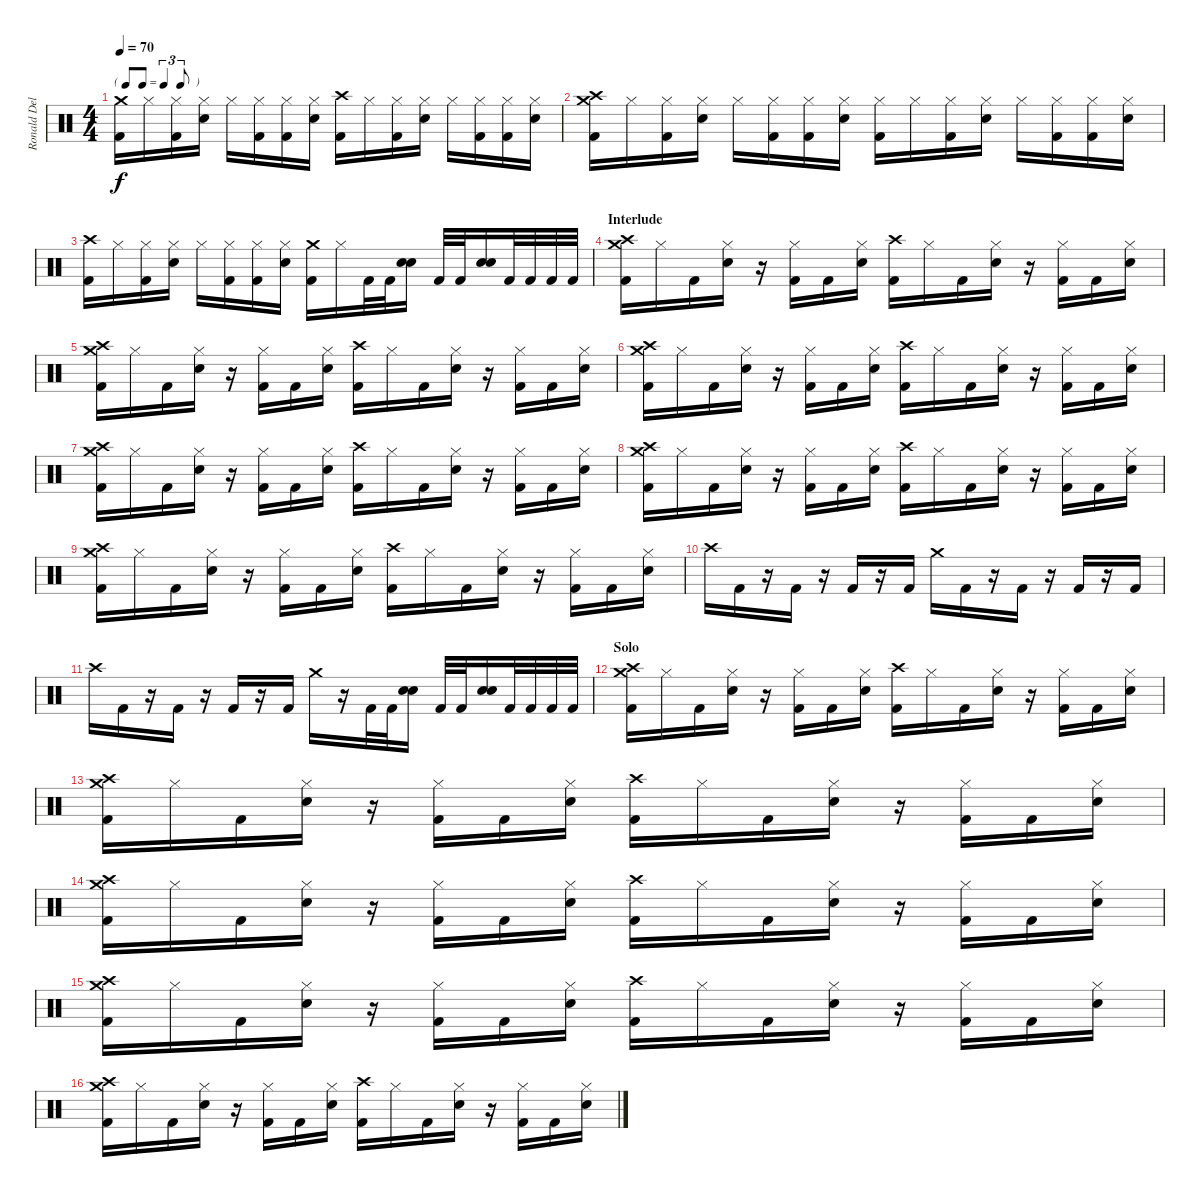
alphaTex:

\track ("Ronald Del Aguila (Bateria)" "Ronald Del") {instrument percussion}
\staff {score}
\articulation defaults
\ts (4 4)
\tf triplet8th
\tempo 70
\clef neutral
\ks c
("Crash medium (hit)" "Kick (hit) 2").16{dy f} "Hi-Hat (closed)".16 ("Hi-Hat (closed)" "Kick (hit) 2").16 ("Hi-Hat (closed)" "Snare (hit) 2").16 "Hi-Hat (closed)".16 ("Hi-Hat (closed)" "Kick (hit) 2").16 ("Hi-Hat (closed)" "Kick (hit) 2").16 ("Hi-Hat (closed)" "Snare (hit) 2").16 ("Crash high (hit)" "Kick (hit) 2").16 "Hi-Hat (closed)".16 ("Hi-Hat (closed)" "Kick (hit) 2").16 ("Hi-Hat (closed)" "Snare (hit) 2").16 "Hi-Hat (closed)".16 ("Hi-Hat (closed)" "Kick (hit) 2").16 ("Hi-Hat (closed)" "Kick (hit) 2").16 ("Hi-Hat (closed)" "Snare (hit) 2").16 |
("Crash medium (hit)" "Crash high (hit)" "Kick (hit) 2").16 "Hi-Hat (closed)".16 ("Hi-Hat (closed)" "Kick (hit) 2").16 ("Hi-Hat (closed)" "Snare (hit) 2").16 "Hi-Hat (closed)".16 ("Hi-Hat (closed)" "Kick (hit) 2").16 ("Hi-Hat (closed)" "Kick (hit) 2").16 ("Hi-Hat (closed)" "Snare (hit) 2").16 ("Hi-Hat (closed)" "Kick (hit) 2").16 "Hi-Hat (closed)".16 ("Hi-Hat (closed)" "Kick (hit) 2").16 ("Hi-Hat (closed)" "Snare (hit) 2").16 "Hi-Hat (closed)".16 ("Hi-Hat (closed)" "Kick (hit) 2").16 ("Hi-Hat (closed)" "Kick (hit) 2").16 ("Hi-Hat (closed)" "Snare (hit) 2").16 |
("Crash high (hit)" "Kick (hit) 2").16 "Hi-Hat (closed)".16 ("Hi-Hat (closed)" "Kick (hit) 2").16 ("Hi-Hat (closed)" "Snare (hit) 2").16 "Hi-Hat (closed)".16 ("Hi-Hat (closed)" "Kick (hit) 2").16 ("Hi-Hat (closed)" "Kick (hit) 2").16 ("Hi-Hat (closed)" "Snare (hit) 2").16 ("Crash medium (hit)" "Kick (hit) 2").16 "Hi-Hat (closed)".16 "Kick (hit) 2".32 "Kick (hit) 2".32 ("Snare (hit) 2" "Snare (hit) 2").16 "Kick (hit) 2".32 "Kick (hit) 2".32 ("Snare (hit) 2" "Snare (hit) 2").16 "Kick (hit) 2".32 "Kick (hit) 2".32 "Kick (hit) 2".32 "Kick (hit) 2".32 |
\section ("" "Interlude")
("Crash medium (hit)" "Crash high (hit)" "Kick (hit) 2").16 "Hi-Hat (closed)".16 "Kick (hit) 2".16 ("Hi-Hat (closed)" "Snare (hit) 2").16 r.16 ("Hi-Hat (closed)" "Kick (hit) 2").16 "Kick (hit) 2".16 ("Hi-Hat (closed)" "Snare (hit) 2").16 ("Crash high (hit)" "Kick (hit) 2").16 "Hi-Hat (closed)".16 "Kick (hit) 2".16 ("Hi-Hat (closed)" "Snare (hit) 2").16 r.16 ("Hi-Hat (closed)" "Kick (hit) 2").16 "Kick (hit) 2".16 ("Hi-Hat (closed)" "Snare (hit) 2").16 |
("Crash medium (hit)" "Crash high (hit)" "Kick (hit) 2").16 "Hi-Hat (closed)".16 "Kick (hit) 2".16 ("Hi-Hat (closed)" "Snare (hit) 2").16 r.16 ("Hi-Hat (closed)" "Kick (hit) 2").16 "Kick (hit) 2".16 ("Hi-Hat (closed)" "Snare (hit) 2").16 ("Crash high (hit)" "Kick (hit) 2").16 "Hi-Hat (closed)".16 "Kick (hit) 2".16 ("Hi-Hat (closed)" "Snare (hit) 2").16 r.16 ("Hi-Hat (closed)" "Kick (hit) 2").16 "Kick (hit) 2".16 ("Hi-Hat (closed)" "Snare (hit) 2").16 |
("Crash medium (hit)" "Crash high (hit)" "Kick (hit) 2").16 "Hi-Hat (closed)".16 "Kick (hit) 2".16 ("Hi-Hat (closed)" "Snare (hit) 2").16 r.16 ("Hi-Hat (closed)" "Kick (hit) 2").16 "Kick (hit) 2".16 ("Hi-Hat (closed)" "Snare (hit) 2").16 ("Crash high (hit)" "Kick (hit) 2").16 "Hi-Hat (closed)".16 "Kick (hit) 2".16 ("Hi-Hat (closed)" "Snare (hit) 2").16 r.16 ("Hi-Hat (closed)" "Kick (hit) 2").16 "Kick (hit) 2".16 ("Hi-Hat (closed)" "Snare (hit) 2").16 |
("Crash medium (hit)" "Crash high (hit)" "Kick (hit) 2").16 "Hi-Hat (closed)".16 "Kick (hit) 2".16 ("Hi-Hat (closed)" "Snare (hit) 2").16 r.16 ("Hi-Hat (closed)" "Kick (hit) 2").16 "Kick (hit) 2".16 ("Hi-Hat (closed)" "Snare (hit) 2").16 ("Crash high (hit)" "Kick (hit) 2").16 "Hi-Hat (closed)".16 "Kick (hit) 2".16 ("Hi-Hat (closed)" "Snare (hit) 2").16 r.16 ("Hi-Hat (closed)" "Kick (hit) 2").16 "Kick (hit) 2".16 ("Hi-Hat (closed)" "Snare (hit) 2").16 |
("Crash medium (hit)" "Crash high (hit)" "Kick (hit) 2").16 "Hi-Hat (closed)".16 "Kick (hit) 2".16 ("Hi-Hat (closed)" "Snare (hit) 2").16 r.16 ("Hi-Hat (closed)" "Kick (hit) 2").16 "Kick (hit) 2".16 ("Hi-Hat (closed)" "Snare (hit) 2").16 ("Crash high (hit)" "Kick (hit) 2").16 "Hi-Hat (closed)".16 "Kick (hit) 2".16 ("Hi-Hat (closed)" "Snare (hit) 2").16 r.16 ("Hi-Hat (closed)" "Kick (hit) 2").16 "Kick (hit) 2".16 ("Hi-Hat (closed)" "Snare (hit) 2").16 |
("Crash medium (hit)" "Crash high (hit)" "Kick (hit) 2").16 "Hi-Hat (closed)".16 "Kick (hit) 2".16 ("Hi-Hat (closed)" "Snare (hit) 2").16 r.16 ("Hi-Hat (closed)" "Kick (hit) 2").16 "Kick (hit) 2".16 ("Hi-Hat (closed)" "Snare (hit) 2").16 ("Crash high (hit)" "Kick (hit) 2").16 "Hi-Hat (closed)".16 "Kick (hit) 2".16 ("Hi-Hat (closed)" "Snare (hit) 2").16 r.16 ("Hi-Hat (closed)" "Kick (hit) 2").16 "Kick (hit) 2".16 ("Hi-Hat (closed)" "Snare (hit) 2").16 |
"Crash high (hit)".16 "Kick (hit) 2".16 r.16 "Kick (hit) 2".16 r.16 "Kick (hit) 2".16 r.16 "Kick (hit) 2".16 "Crash medium (hit)".16 "Kick (hit) 2".16 r.16 "Kick (hit) 2".16 r.16 "Kick (hit) 2".16 r.16 "Kick (hit) 2".16 |
"Crash high (hit)".16 "Kick (hit) 2".16 r.16 "Kick (hit) 2".16 r.16 "Kick (hit) 2".16 r.16 "Kick (hit) 2".16 "Crash medium (hit)".16 r.16 "Kick (hit) 2".32 "Kick (hit) 2".32 ("Snare (hit) 2" "Snare (hit) 2").16 "Kick (hit) 2".32 "Kick (hit) 2".32 ("Snare (hit) 2" "Snare (hit) 2").16 "Kick (hit) 2".32 "Kick (hit) 2".32 "Kick (hit) 2".32 "Kick (hit) 2".32 |
\section ("" "Solo")
("Crash medium (hit)" "Crash high (hit)" "Kick (hit) 2").16 "Hi-Hat (closed)".16 "Kick (hit) 2".16 ("Hi-Hat (closed)" "Snare (hit) 2").16 r.16 ("Hi-Hat (closed)" "Kick (hit) 2").16 "Kick (hit) 2".16 ("Hi-Hat (closed)" "Snare (hit) 2").16 ("Crash high (hit)" "Kick (hit) 2").16 "Hi-Hat (closed)".16 "Kick (hit) 2".16 ("Hi-Hat (closed)" "Snare (hit) 2").16 r.16 ("Hi-Hat (closed)" "Kick (hit) 2").16 "Kick (hit) 2".16 ("Hi-Hat (closed)" "Snare (hit) 2").16 |
("Crash medium (hit)" "Crash high (hit)" "Kick (hit) 2").16 "Hi-Hat (closed)".16 "Kick (hit) 2".16 ("Hi-Hat (closed)" "Snare (hit) 2").16 r.16 ("Hi-Hat (closed)" "Kick (hit) 2").16 "Kick (hit) 2".16 ("Hi-Hat (closed)" "Snare (hit) 2").16 ("Crash high (hit)" "Kick (hit) 2").16 "Hi-Hat (closed)".16 "Kick (hit) 2".16 ("Hi-Hat (closed)" "Snare (hit) 2").16 r.16 ("Hi-Hat (closed)" "Kick (hit) 2").16 "Kick (hit) 2".16 ("Hi-Hat (closed)" "Snare (hit) 2").16 |
("Crash medium (hit)" "Crash high (hit)" "Kick (hit) 2").16 "Hi-Hat (closed)".16 "Kick (hit) 2".16 ("Hi-Hat (closed)" "Snare (hit) 2").16 r.16 ("Hi-Hat (closed)" "Kick (hit) 2").16 "Kick (hit) 2".16 ("Hi-Hat (closed)" "Snare (hit) 2").16 ("Crash high (hit)" "Kick (hit) 2").16 "Hi-Hat (closed)".16 "Kick (hit) 2".16 ("Hi-Hat (closed)" "Snare (hit) 2").16 r.16 ("Hi-Hat (closed)" "Kick (hit) 2").16 "Kick (hit) 2".16 ("Hi-Hat (closed)" "Snare (hit) 2").16 |
("Crash medium (hit)" "Crash high (hit)" "Kick (hit) 2").16 "Hi-Hat (closed)".16 "Kick (hit) 2".16 ("Hi-Hat (closed)" "Snare (hit) 2").16 r.16 ("Hi-Hat (closed)" "Kick (hit) 2").16 "Kick (hit) 2".16 ("Hi-Hat (closed)" "Snare (hit) 2").16 ("Crash high (hit)" "Kick (hit) 2").16 "Hi-Hat (closed)".16 "Kick (hit) 2".16 ("Hi-Hat (closed)" "Snare (hit) 2").16 r.16 ("Hi-Hat (closed)" "Kick (hit) 2").16 "Kick (hit) 2".16 ("Hi-Hat (closed)" "Snare (hit) 2").16 |
("Crash medium (hit)" "Crash high (hit)" "Kick (hit) 2").16 "Hi-Hat (closed)".16 "Kick (hit) 2".16 ("Hi-Hat (closed)" "Snare (hit) 2").16 r.16 ("Hi-Hat (closed)" "Kick (hit) 2").16 "Kick (hit) 2".16 ("Hi-Hat (closed)" "Snare (hit) 2").16 ("Crash high (hit)" "Kick (hit) 2").16 "Hi-Hat (closed)".16 "Kick (hit) 2".16 ("Hi-Hat (closed)" "Snare (hit) 2").16 r.16 ("Hi-Hat (closed)" "Kick (hit) 2").16 "Kick (hit) 2".16 ("Hi-Hat (closed)" "Snare (hit) 2").16
